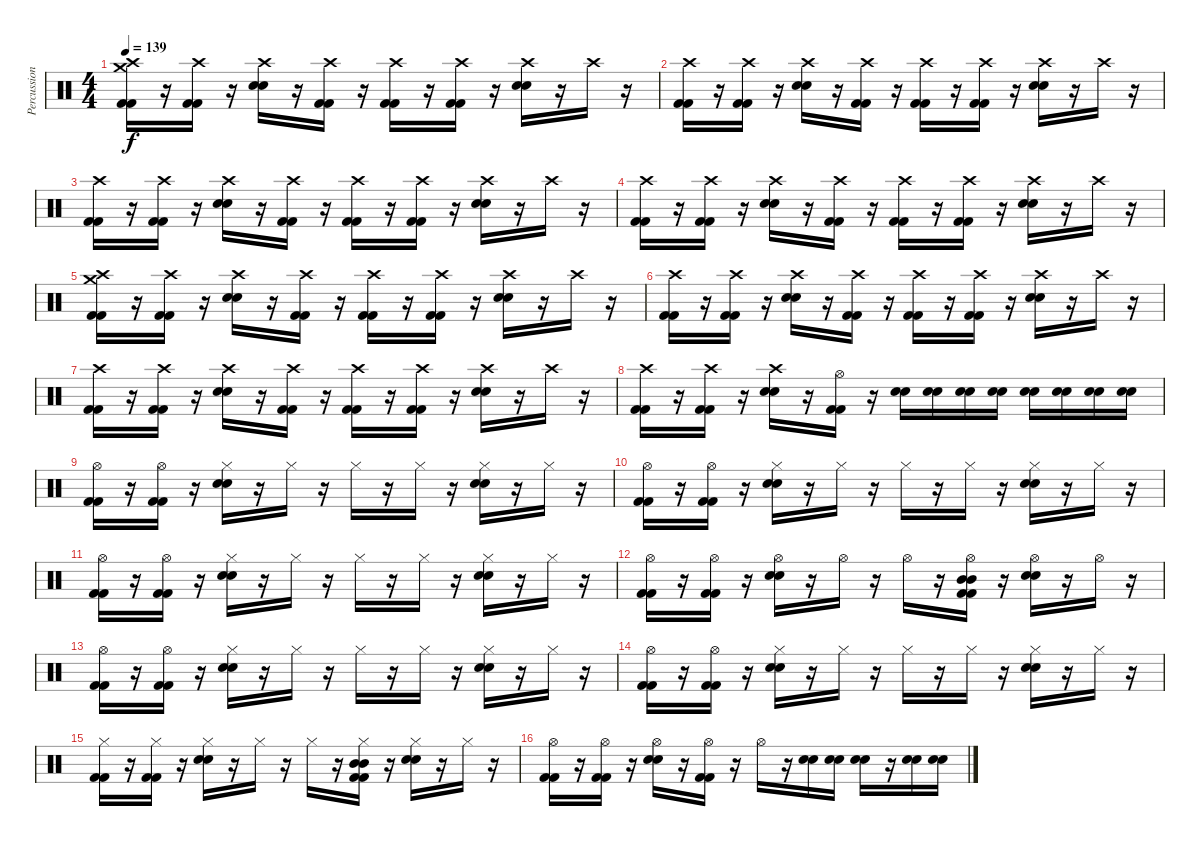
\track ("Percussioni" "Percussion") {instrument percussion}
\staff {score}
\articulation defaults
\ts (4 4)
\tempo 139
\clef neutral
\ks c
("Crash high (hit)" "Crash medium (hit)" "Kick (hit) 2" "Kick (hit) 2").16{dy f} r.16 ("Crash high (hit)" "Kick (hit) 2" "Kick (hit) 2").16 r.16 ("Crash high (hit)" "Snare (hit) 2" "Electric Snare (hit)").16 r.16 ("Crash high (hit)" "Kick (hit) 2" "Kick (hit) 2").16 r.16 ("Crash high (hit)" "Kick (hit) 2" "Kick (hit) 2").16 r.16 ("Crash high (hit)" "Kick (hit) 2" "Kick (hit) 2").16 r.16 ("Crash high (hit)" "Snare (hit) 2" "Electric Snare (hit)").16 r.16 "Crash high (hit)".16 r.16 |
("Crash high (hit)" "Kick (hit) 2" "Kick (hit) 2").16 r.16 ("Crash high (hit)" "Kick (hit) 2" "Kick (hit) 2").16 r.16 ("Crash high (hit)" "Snare (hit) 2" "Electric Snare (hit)").16 r.16 ("Crash high (hit)" "Kick (hit) 2" "Kick (hit) 2").16 r.16 ("Crash high (hit)" "Kick (hit) 2" "Kick (hit) 2").16 r.16 ("Crash high (hit)" "Kick (hit) 2" "Kick (hit) 2").16 r.16 ("Crash high (hit)" "Snare (hit) 2" "Electric Snare (hit)").16 r.16 "Crash high (hit)".16 r.16 |
("Crash high (hit)" "Kick (hit) 2" "Kick (hit) 2").16 r.16 ("Crash high (hit)" "Kick (hit) 2" "Kick (hit) 2").16 r.16 ("Crash high (hit)" "Snare (hit) 2" "Electric Snare (hit)").16 r.16 ("Crash high (hit)" "Kick (hit) 2" "Kick (hit) 2").16 r.16 ("Crash high (hit)" "Kick (hit) 2" "Kick (hit) 2").16 r.16 ("Crash high (hit)" "Kick (hit) 2" "Kick (hit) 2").16 r.16 ("Crash high (hit)" "Snare (hit) 2" "Electric Snare (hit)").16 r.16 "Crash high (hit)".16 r.16 |
("Crash high (hit)" "Kick (hit) 2" "Kick (hit) 2").16 r.16 ("Crash high (hit)" "Kick (hit) 2" "Kick (hit) 2").16 r.16 ("Crash high (hit)" "Snare (hit) 2" "Electric Snare (hit)").16 r.16 ("Crash high (hit)" "Kick (hit) 2" "Kick (hit) 2").16 r.16 ("Crash high (hit)" "Kick (hit) 2" "Kick (hit) 2").16 r.16 ("Crash high (hit)" "Kick (hit) 2" "Kick (hit) 2").16 r.16 ("Crash high (hit)" "Snare (hit) 2" "Electric Snare (hit)").16 r.16 "Crash high (hit)".16 r.16 |
("Crash high (hit)" "Crash medium (hit)" "Kick (hit) 2" "Kick (hit) 2").16 r.16 ("Crash high (hit)" "Kick (hit) 2" "Kick (hit) 2").16 r.16 ("Crash high (hit)" "Snare (hit) 2" "Electric Snare (hit)").16 r.16 ("Crash high (hit)" "Kick (hit) 2" "Kick (hit) 2").16 r.16 ("Crash high (hit)" "Kick (hit) 2" "Kick (hit) 2").16 r.16 ("Crash high (hit)" "Kick (hit) 2" "Kick (hit) 2").16 r.16 ("Crash high (hit)" "Snare (hit) 2" "Electric Snare (hit)").16 r.16 "Crash high (hit)".16 r.16 |
("Crash high (hit)" "Kick (hit) 2" "Kick (hit) 2").16 r.16 ("Crash high (hit)" "Kick (hit) 2" "Kick (hit) 2").16 r.16 ("Crash high (hit)" "Snare (hit) 2" "Electric Snare (hit)").16 r.16 ("Crash high (hit)" "Kick (hit) 2" "Kick (hit) 2").16 r.16 ("Crash high (hit)" "Kick (hit) 2" "Kick (hit) 2").16 r.16 ("Crash high (hit)" "Kick (hit) 2" "Kick (hit) 2").16 r.16 ("Crash high (hit)" "Snare (hit) 2" "Electric Snare (hit)").16 r.16 "Crash high (hit)".16 r.16 |
("Crash high (hit)" "Kick (hit) 2" "Kick (hit) 2").16 r.16 ("Crash high (hit)" "Kick (hit) 2" "Kick (hit) 2").16 r.16 ("Crash high (hit)" "Snare (hit) 2" "Electric Snare (hit)").16 r.16 ("Crash high (hit)" "Kick (hit) 2" "Kick (hit) 2").16 r.16 ("Crash high (hit)" "Kick (hit) 2" "Kick (hit) 2").16 r.16 ("Crash high (hit)" "Kick (hit) 2" "Kick (hit) 2").16 r.16 ("Crash high (hit)" "Snare (hit) 2" "Electric Snare (hit)").16 r.16 "Crash high (hit)".16 r.16 |
("Crash high (hit)" "Kick (hit) 2" "Kick (hit) 2").16 r.16 ("Crash high (hit)" "Kick (hit) 2" "Kick (hit) 2").16 r.16 ("Crash high (hit)" "Snare (hit) 2" "Electric Snare (hit)").16 r.16 ("Hi-Hat (open)" "Kick (hit) 2" "Kick (hit) 2").16 r.16 ("Snare (hit) 2" "Electric Snare (hit)").16 ("Snare (hit) 2" "Electric Snare (hit)").16 ("Snare (hit) 2" "Electric Snare (hit)").16 ("Snare (hit) 2" "Electric Snare (hit)").16 ("Snare (hit) 2" "Electric Snare (hit)").16 ("Snare (hit) 2" "Electric Snare (hit)").16 ("Snare (hit) 2" "Electric Snare (hit)").16 ("Snare (hit) 2" "Electric Snare (hit)").16 |
("Hi-Hat (open)" "Kick (hit) 2" "Kick (hit) 2").16 r.16 ("Hi-Hat (open)" "Kick (hit) 2" "Kick (hit) 2").16 r.16 ("Hi-Hat (closed)" "Snare (hit) 2" "Electric Snare (hit)").16 r.16 "Hi-Hat (closed)".16 r.16 "Hi-Hat (closed)".16 r.16 "Hi-Hat (closed)".16 r.16 ("Hi-Hat (closed)" "Snare (hit) 2" "Electric Snare (hit)").16 r.16 "Hi-Hat (closed)".16 r.16 |
("Hi-Hat (open)" "Kick (hit) 2" "Kick (hit) 2").16 r.16 ("Hi-Hat (open)" "Kick (hit) 2" "Kick (hit) 2").16 r.16 ("Hi-Hat (closed)" "Snare (hit) 2" "Electric Snare (hit)").16 r.16 "Hi-Hat (closed)".16 r.16 "Hi-Hat (closed)".16 r.16 "Hi-Hat (closed)".16 r.16 ("Hi-Hat (closed)" "Snare (hit) 2" "Electric Snare (hit)").16 r.16 "Hi-Hat (closed)".16 r.16 |
("Hi-Hat (open)" "Kick (hit) 2" "Kick (hit) 2").16 r.16 ("Hi-Hat (open)" "Kick (hit) 2" "Kick (hit) 2").16 r.16 ("Hi-Hat (closed)" "Snare (hit) 2" "Electric Snare (hit)").16 r.16 "Hi-Hat (closed)".16 r.16 "Hi-Hat (closed)".16 r.16 "Hi-Hat (closed)".16 r.16 ("Hi-Hat (closed)" "Snare (hit) 2" "Electric Snare (hit)").16 r.16 "Hi-Hat (closed)".16 r.16 |
("Hi-Hat (open)" "Kick (hit) 2" "Kick (hit) 2").16 r.16 ("Hi-Hat (open)" "Kick (hit) 2" "Kick (hit) 2").16 r.16 ("Hi-Hat (open)" "Snare (hit) 2" "Electric Snare (hit)").16 r.16 "Hi-Hat (open)".16 r.16 "Hi-Hat (open)".16 r.16 ("Hi-Hat (open)" "Mid Tom (hit)" "Mid Tom (hit)" "Kick (hit) 2" "Kick (hit) 2").16 r.16 ("Hi-Hat (open)" "Snare (hit) 2" "Electric Snare (hit)").16 r.16 "Hi-Hat (open)".16 r.16 |
("Hi-Hat (open)" "Kick (hit) 2" "Kick (hit) 2").16 r.16 ("Hi-Hat (open)" "Kick (hit) 2" "Kick (hit) 2").16 r.16 ("Hi-Hat (closed)" "Snare (hit) 2" "Electric Snare (hit)").16 r.16 "Hi-Hat (closed)".16 r.16 "Hi-Hat (closed)".16 r.16 "Hi-Hat (closed)".16 r.16 ("Hi-Hat (closed)" "Snare (hit) 2" "Electric Snare (hit)").16 r.16 "Hi-Hat (closed)".16 r.16 |
("Hi-Hat (open)" "Kick (hit) 2" "Kick (hit) 2").16 r.16 ("Hi-Hat (open)" "Kick (hit) 2" "Kick (hit) 2").16 r.16 ("Hi-Hat (closed)" "Snare (hit) 2" "Electric Snare (hit)").16 r.16 "Hi-Hat (closed)".16 r.16 "Hi-Hat (closed)".16 r.16 "Hi-Hat (closed)".16 r.16 ("Hi-Hat (closed)" "Snare (hit) 2" "Electric Snare (hit)").16 r.16 "Hi-Hat (closed)".16 r.16 |
("Hi-Hat (closed)" "Kick (hit) 2" "Kick (hit) 2").16 r.16 ("Hi-Hat (closed)" "Kick (hit) 2" "Kick (hit) 2").16 r.16 ("Hi-Hat (closed)" "Snare (hit) 2" "Electric Snare (hit)").16 r.16 "Hi-Hat (closed)".16 r.16 "Hi-Hat (closed)".16 r.16 ("Hi-Hat (closed)" "Mid Tom (hit)" "Mid Tom (hit)" "Kick (hit) 2" "Kick (hit) 2").16 r.16 ("Hi-Hat (closed)" "Snare (hit) 2" "Electric Snare (hit)").16 r.16 "Hi-Hat (closed)".16 r.16 |
("Hi-Hat (open)" "Kick (hit) 2" "Kick (hit) 2").16 r.16 ("Hi-Hat (open)" "Kick (hit) 2" "Kick (hit) 2").16 r.16 ("Hi-Hat (open)" "Snare (hit) 2" "Electric Snare (hit)").16 r.16 ("Hi-Hat (open)" "Kick (hit) 2" "Kick (hit) 2").16 r.16 "Hi-Hat (open)".16 r.16 ("Snare (hit) 2" "Electric Snare (hit)").16 ("Snare (hit) 2" "Electric Snare (hit)").16 ("Snare (hit) 2" "Electric Snare (hit)").16 r.16 ("Snare (hit) 2" "Electric Snare (hit)").16 ("Snare (hit) 2" "Electric Snare (hit)").16
